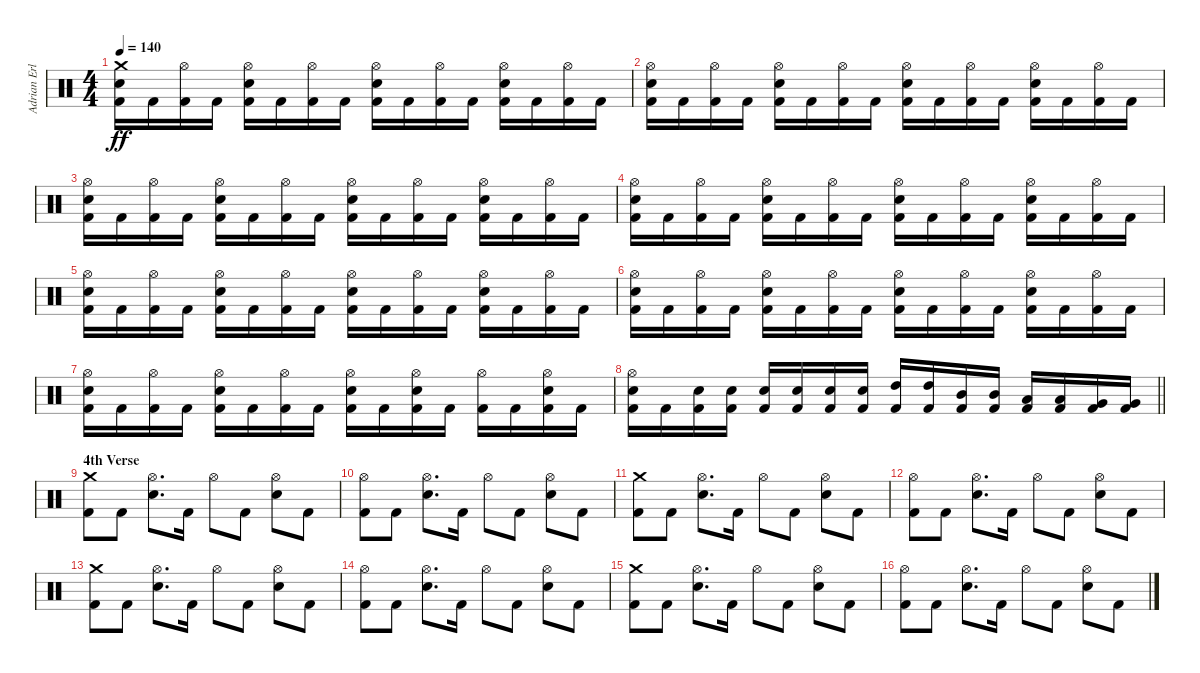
\track ("Adrian Erlandsson" "Adrian Erl") {instrument percussion}
\staff {score}
\articulation defaults
\ts (4 4)
\tempo 140
\clef neutral
\ks c
("Kick (hit) 2" "Electric Snare (hit)" "Crash medium (hit)").16{dy ff} "Kick (hit) 2".16 ("Kick (hit) 2" "Hi-Hat (open)").16 "Kick (hit) 2".16 ("Kick (hit) 2" "Electric Snare (hit)" "Hi-Hat (open)").16 "Kick (hit) 2".16 ("Kick (hit) 2" "Hi-Hat (open)").16 "Kick (hit) 2".16 ("Kick (hit) 2" "Electric Snare (hit)" "Hi-Hat (open)").16 "Kick (hit) 2".16 ("Kick (hit) 2" "Hi-Hat (open)").16 "Kick (hit) 2".16 ("Kick (hit) 2" "Electric Snare (hit)" "Hi-Hat (open)").16 "Kick (hit) 2".16 ("Kick (hit) 2" "Hi-Hat (open)").16 "Kick (hit) 2".16 |
("Kick (hit) 2" "Electric Snare (hit)" "Hi-Hat (open)").16 "Kick (hit) 2".16 ("Kick (hit) 2" "Hi-Hat (open)").16 "Kick (hit) 2".16 ("Kick (hit) 2" "Electric Snare (hit)" "Hi-Hat (open)").16 "Kick (hit) 2".16 ("Kick (hit) 2" "Hi-Hat (open)").16 "Kick (hit) 2".16 ("Kick (hit) 2" "Electric Snare (hit)" "Hi-Hat (open)").16 "Kick (hit) 2".16 ("Kick (hit) 2" "Hi-Hat (open)").16 "Kick (hit) 2".16 ("Kick (hit) 2" "Electric Snare (hit)" "Hi-Hat (open)").16 "Kick (hit) 2".16 ("Kick (hit) 2" "Hi-Hat (open)").16 "Kick (hit) 2".16 |
("Kick (hit) 2" "Electric Snare (hit)" "Hi-Hat (open)").16 "Kick (hit) 2".16 ("Kick (hit) 2" "Hi-Hat (open)").16 "Kick (hit) 2".16 ("Kick (hit) 2" "Electric Snare (hit)" "Hi-Hat (open)").16 "Kick (hit) 2".16 ("Kick (hit) 2" "Hi-Hat (open)").16 "Kick (hit) 2".16 ("Kick (hit) 2" "Electric Snare (hit)" "Hi-Hat (open)").16 "Kick (hit) 2".16 ("Kick (hit) 2" "Hi-Hat (open)").16 "Kick (hit) 2".16 ("Kick (hit) 2" "Electric Snare (hit)" "Hi-Hat (open)").16 "Kick (hit) 2".16 ("Kick (hit) 2" "Hi-Hat (open)").16 "Kick (hit) 2".16 |
("Kick (hit) 2" "Electric Snare (hit)" "Hi-Hat (open)").16 "Kick (hit) 2".16 ("Kick (hit) 2" "Hi-Hat (open)").16 "Kick (hit) 2".16 ("Kick (hit) 2" "Electric Snare (hit)" "Hi-Hat (open)").16 "Kick (hit) 2".16 ("Kick (hit) 2" "Hi-Hat (open)").16 "Kick (hit) 2".16 ("Kick (hit) 2" "Electric Snare (hit)" "Hi-Hat (open)").16 "Kick (hit) 2".16 ("Kick (hit) 2" "Hi-Hat (open)").16 "Kick (hit) 2".16 ("Kick (hit) 2" "Electric Snare (hit)" "Hi-Hat (open)").16 "Kick (hit) 2".16 ("Kick (hit) 2" "Hi-Hat (open)").16 "Kick (hit) 2".16 |
("Kick (hit) 2" "Electric Snare (hit)" "Hi-Hat (open)").16 "Kick (hit) 2".16 ("Kick (hit) 2" "Hi-Hat (open)").16 "Kick (hit) 2".16 ("Kick (hit) 2" "Electric Snare (hit)" "Hi-Hat (open)").16 "Kick (hit) 2".16 ("Kick (hit) 2" "Hi-Hat (open)").16 "Kick (hit) 2".16 ("Kick (hit) 2" "Electric Snare (hit)" "Hi-Hat (open)").16 "Kick (hit) 2".16 ("Kick (hit) 2" "Hi-Hat (open)").16 "Kick (hit) 2".16 ("Kick (hit) 2" "Electric Snare (hit)" "Hi-Hat (open)").16 "Kick (hit) 2".16 ("Kick (hit) 2" "Hi-Hat (open)").16 "Kick (hit) 2".16 |
("Kick (hit) 2" "Electric Snare (hit)" "Hi-Hat (open)").16 "Kick (hit) 2".16 ("Kick (hit) 2" "Hi-Hat (open)").16 "Kick (hit) 2".16 ("Kick (hit) 2" "Electric Snare (hit)" "Hi-Hat (open)").16 "Kick (hit) 2".16 ("Kick (hit) 2" "Hi-Hat (open)").16 "Kick (hit) 2".16 ("Kick (hit) 2" "Electric Snare (hit)" "Hi-Hat (open)").16 "Kick (hit) 2".16 ("Kick (hit) 2" "Hi-Hat (open)").16 "Kick (hit) 2".16 ("Kick (hit) 2" "Electric Snare (hit)" "Hi-Hat (open)").16 "Kick (hit) 2".16 ("Kick (hit) 2" "Hi-Hat (open)").16 "Kick (hit) 2".16 |
("Kick (hit) 2" "Electric Snare (hit)" "Hi-Hat (open)").16 "Kick (hit) 2".16 ("Kick (hit) 2" "Hi-Hat (open)").16 "Kick (hit) 2".16 ("Kick (hit) 2" "Electric Snare (hit)" "Hi-Hat (open)").16 "Kick (hit) 2".16 ("Kick (hit) 2" "Hi-Hat (open)").16 "Kick (hit) 2".16 ("Kick (hit) 2" "Electric Snare (hit)" "Hi-Hat (open)").16 "Kick (hit) 2".16 ("Kick (hit) 2" "Electric Snare (hit)" "Hi-Hat (open)").16 "Kick (hit) 2".16 ("Kick (hit) 2" "Hi-Hat (open)").16 "Kick (hit) 2".16 ("Kick (hit) 2" "Electric Snare (hit)" "Hi-Hat (open)").16 "Kick (hit) 2".16 |
\barLineRight lightlight
("Kick (hit) 2" "Electric Snare (hit)" "Hi-Hat (open)").16 "Kick (hit) 2".16 ("Kick (hit) 2" "Electric Snare (hit)").16 ("Kick (hit) 2" "Electric Snare (hit)").16 ("Kick (hit) 2" "Electric Snare (hit)").16 ("Kick (hit) 2" "Electric Snare (hit)").16 ("Kick (hit) 2" "Electric Snare (hit)").16 ("Kick (hit) 2" "Electric Snare (hit)").16 ("Kick (hit) 2" "High Tom (hit)").16 ("Kick (hit) 2" "High Tom (hit)").16 ("Kick (hit) 2" "Mid Tom (hit)").16 ("Kick (hit) 2" "Mid Tom (hit)").16 ("Kick (hit) 2" "Low Tom (hit)").16 ("Kick (hit) 2" "Low Tom (hit)").16 ("Kick (hit) 2" "Very Low Tom (hit)").16 ("Kick (hit) 2" "Very Low Tom (hit)").16 |
\section ("" "4th Verse")
("Kick (hit) 2" "Crash medium (hit)").8 "Kick (hit) 2".8 ("Electric Snare (hit)" "Hi-Hat (open)").8{d} "Kick (hit) 2".16 "Hi-Hat (open)".8 "Kick (hit) 2".8 ("Electric Snare (hit)" "Hi-Hat (open)").8 "Kick (hit) 2".8 |
("Kick (hit) 2" "Hi-Hat (open)").8 "Kick (hit) 2".8 ("Electric Snare (hit)" "Hi-Hat (open)").8{d} "Kick (hit) 2".16 "Hi-Hat (open)".8 "Kick (hit) 2".8 ("Electric Snare (hit)" "Hi-Hat (open)").8 "Kick (hit) 2".8 |
("Kick (hit) 2" "Crash medium (hit)").8 "Kick (hit) 2".8 ("Electric Snare (hit)" "Hi-Hat (open)").8{d} "Kick (hit) 2".16 "Hi-Hat (open)".8 "Kick (hit) 2".8 ("Electric Snare (hit)" "Hi-Hat (open)").8 "Kick (hit) 2".8 |
("Kick (hit) 2" "Hi-Hat (open)").8 "Kick (hit) 2".8 ("Electric Snare (hit)" "Hi-Hat (open)").8{d} "Kick (hit) 2".16 "Hi-Hat (open)".8 "Kick (hit) 2".8 ("Electric Snare (hit)" "Hi-Hat (open)").8 "Kick (hit) 2".8 |
("Kick (hit) 2" "Crash medium (hit)").8 "Kick (hit) 2".8 ("Electric Snare (hit)" "Hi-Hat (open)").8{d} "Kick (hit) 2".16 "Hi-Hat (open)".8 "Kick (hit) 2".8 ("Electric Snare (hit)" "Hi-Hat (open)").8 "Kick (hit) 2".8 |
("Kick (hit) 2" "Hi-Hat (open)").8 "Kick (hit) 2".8 ("Electric Snare (hit)" "Hi-Hat (open)").8{d} "Kick (hit) 2".16 "Hi-Hat (open)".8 "Kick (hit) 2".8 ("Electric Snare (hit)" "Hi-Hat (open)").8 "Kick (hit) 2".8 |
("Kick (hit) 2" "Crash medium (hit)").8 "Kick (hit) 2".8 ("Electric Snare (hit)" "Hi-Hat (open)").8{d} "Kick (hit) 2".16 "Hi-Hat (open)".8 "Kick (hit) 2".8 ("Electric Snare (hit)" "Hi-Hat (open)").8 "Kick (hit) 2".8 |
("Kick (hit) 2" "Hi-Hat (open)").8 "Kick (hit) 2".8 ("Electric Snare (hit)" "Hi-Hat (open)").8{d} "Kick (hit) 2".16 "Hi-Hat (open)".8 "Kick (hit) 2".8 ("Electric Snare (hit)" "Hi-Hat (open)").8 "Kick (hit) 2".8
